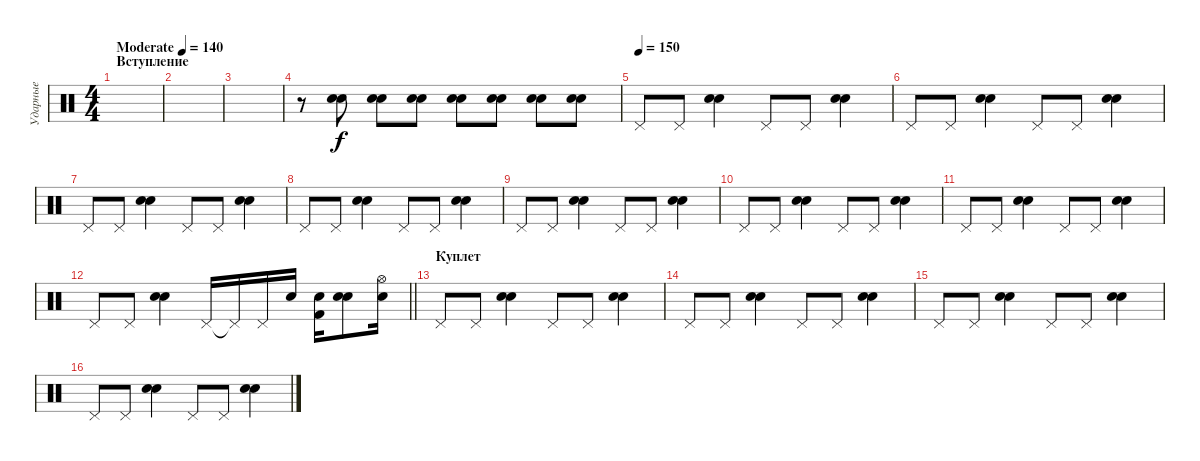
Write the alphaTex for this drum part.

\track ("Ударные" "Ударные") {instrument percussion}
\staff {score}
\articulation defaults
\ts (4 4)
\section ("" "Вступление")
\tempo (140 "Moderate")
\clef neutral
\ks c
|
|
|
r.8 ("Electric Snare (hit)" "Snare (hit) 2").8 ("Electric Snare (hit)" "Snare (hit) 2").8 ("Electric Snare (hit)" "Snare (hit) 2").8 ("Electric Snare (hit)" "Snare (hit) 2").8 ("Electric Snare (hit)" "Snare (hit) 2").8 ("Electric Snare (hit)" "Snare (hit) 2").8 ("Electric Snare (hit)" "Snare (hit) 2").8 |
\tempo (150)
"Pedal Hi-Hat (hit)".8 "Pedal Hi-Hat (hit)".8 ("Electric Snare (hit)" "Snare (hit) 2").4 "Pedal Hi-Hat (hit)".8 "Pedal Hi-Hat (hit)".8 ("Electric Snare (hit)" "Snare (hit) 2").4 |
"Pedal Hi-Hat (hit)".8 "Pedal Hi-Hat (hit)".8 ("Electric Snare (hit)" "Snare (hit) 2").4 "Pedal Hi-Hat (hit)".8 "Pedal Hi-Hat (hit)".8 ("Electric Snare (hit)" "Snare (hit) 2").4 |
"Pedal Hi-Hat (hit)".8 "Pedal Hi-Hat (hit)".8 ("Electric Snare (hit)" "Snare (hit) 2").4 "Pedal Hi-Hat (hit)".8 "Pedal Hi-Hat (hit)".8 ("Electric Snare (hit)" "Snare (hit) 2").4 |
"Pedal Hi-Hat (hit)".8 "Pedal Hi-Hat (hit)".8 ("Electric Snare (hit)" "Snare (hit) 2").4 "Pedal Hi-Hat (hit)".8 "Pedal Hi-Hat (hit)".8 ("Electric Snare (hit)" "Snare (hit) 2").4 |
"Pedal Hi-Hat (hit)".8 "Pedal Hi-Hat (hit)".8 ("Electric Snare (hit)" "Snare (hit) 2").4 "Pedal Hi-Hat (hit)".8 "Pedal Hi-Hat (hit)".8 ("Electric Snare (hit)" "Snare (hit) 2").4 |
"Pedal Hi-Hat (hit)".8 "Pedal Hi-Hat (hit)".8 ("Electric Snare (hit)" "Snare (hit) 2").4 "Pedal Hi-Hat (hit)".8 "Pedal Hi-Hat (hit)".8 ("Electric Snare (hit)" "Snare (hit) 2").4 |
"Pedal Hi-Hat (hit)".8 "Pedal Hi-Hat (hit)".8 ("Electric Snare (hit)" "Snare (hit) 2").4 "Pedal Hi-Hat (hit)".8 "Pedal Hi-Hat (hit)".8 ("Electric Snare (hit)" "Snare (hit) 2").4 |
\barLineRight lightlight "Pedal Hi-Hat (hit)".8 "Pedal Hi-Hat (hit)".8
("Electric Snare (hit)" "Snare (hit) 2").4 "Pedal Hi-Hat (hit)".16 "Pedal Hi-Hat (hit)"{t}.16 "Pedal Hi-Hat (hit)".16 "Electric Snare (hit)".16 ("Electric Snare (hit)" "Kick (hit) 2").16 ("Electric Snare (hit)" "Snare (hit) 2").8 ("Hi-Hat (open)" "Electric Snare (hit)").16 |
\section ("" "Куплет")
"Pedal Hi-Hat (hit)".8 "Pedal Hi-Hat (hit)".8 ("Electric Snare (hit)" "Snare (hit) 2").4 "Pedal Hi-Hat (hit)".8 "Pedal Hi-Hat (hit)".8 ("Electric Snare (hit)" "Snare (hit) 2").4 |
"Pedal Hi-Hat (hit)".8 "Pedal Hi-Hat (hit)".8 ("Electric Snare (hit)" "Snare (hit) 2").4 "Pedal Hi-Hat (hit)".8 "Pedal Hi-Hat (hit)".8 ("Electric Snare (hit)" "Snare (hit) 2").4 |
"Pedal Hi-Hat (hit)".8 "Pedal Hi-Hat (hit)".8 ("Electric Snare (hit)" "Snare (hit) 2").4 "Pedal Hi-Hat (hit)".8 "Pedal Hi-Hat (hit)".8 ("Electric Snare (hit)" "Snare (hit) 2").4 |
"Pedal Hi-Hat (hit)".8 "Pedal Hi-Hat (hit)".8 ("Electric Snare (hit)" "Snare (hit) 2").4 "Pedal Hi-Hat (hit)".8 "Pedal Hi-Hat (hit)".8 ("Electric Snare (hit)" "Snare (hit) 2").4
